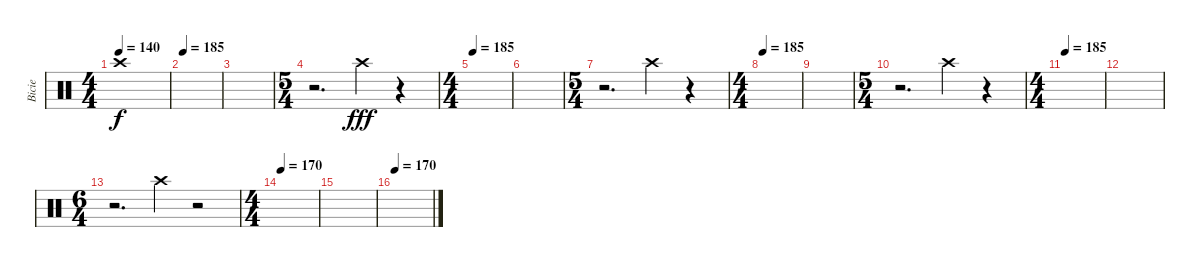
\track ("Bicie" "Bicie") {instrument percussion}
\staff {score}
\articulation defaults
\ts (4 4)
\tempo 140
\clef neutral
\ks c "Crash high (hit)".1{dy f}
|
\tempo 185
|
|
\ts (5 4)
r.2{d} "Crash high (hit)".4{dy fff} r.4{volume 0} |
\ts (4 4)
\tempo 185
|
|
\ts (5 4)
r.2{d} "Crash high (hit)".4{volume 16} r.4{volume 0} |
\ts (4 4)
\tempo 185
|
|
\ts (5 4)
r.2{d} "Crash high (hit)".4{volume 16} r.4{volume 0} |
\ts (4 4)
\tempo 185
|
|
\ts (6 4)
r.2{d} "Crash high (hit)".4{volume 16} r.2{volume 0} |
\ts (4 4)
\tempo 170
|
|
\tempo 170
